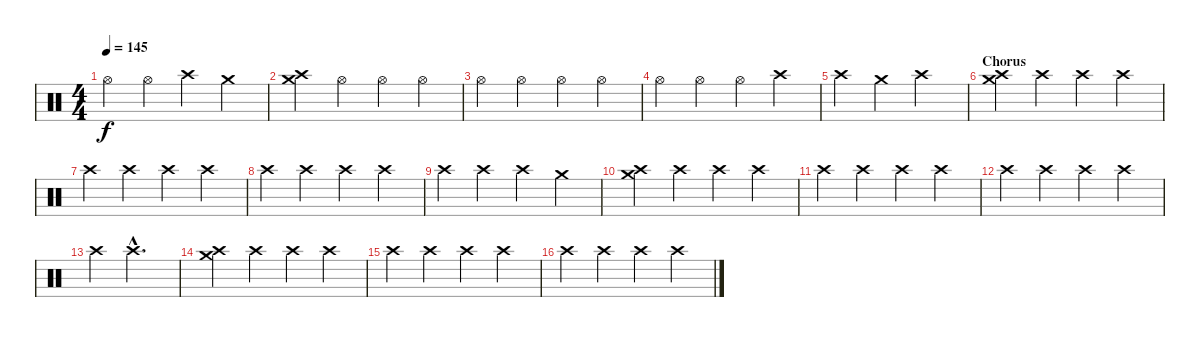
\track "" {instrument percussion}
\staff {score}
\articulation defaults
\ts (4 4)
\tempo 145
\clef neutral
\ks c "Hi-Hat (open)".4{dy f} "Hi-Hat (open)".4 "Crash high (hit)".4 "Crash medium (hit)".4
|
("Crash medium (hit)" "Crash high (hit)").4 "Hi-Hat (open)".4 "Hi-Hat (open)".4 "Hi-Hat (open)".4 |
"Hi-Hat (open)".4 "Hi-Hat (open)".4 "Hi-Hat (open)".4 "Hi-Hat (open)".4 |
"Hi-Hat (open)".4 "Hi-Hat (open)".4 "Hi-Hat (open)".4 "Crash high (hit)".4 |
"Crash high (hit)".4 "Crash medium (hit)".4 "Crash high (hit)".2 |
\section ("" "Chorus")
("Crash medium (hit)" "Crash high (hit)").4 "Crash high (hit)".4 "Crash high (hit)".4 "Crash high (hit)".4 |
"Crash high (hit)".4 "Crash high (hit)".4 "Crash high (hit)".4 "Crash high (hit)".4 |
"Crash high (hit)".4 "Crash high (hit)".4 "Crash high (hit)".4 "Crash high (hit)".4 |
"Crash high (hit)".4 "Crash high (hit)".4 "Crash high (hit)".4 "Crash medium (hit)".4 |
("Crash medium (hit)" "Crash high (hit)").4 "Crash high (hit)".4 "Crash high (hit)".4 "Crash high (hit)".4 |
"Crash high (hit)".4 "Crash high (hit)".4 "Crash high (hit)".4 "Crash high (hit)".4 |
"Crash high (hit)".4 "Crash high (hit)".4 "Crash high (hit)".4 "Crash high (hit)".4 |
"Crash high (hit)".4 "Crash high (hit)"{hac}.2{d} |
("Crash medium (hit)" "Crash high (hit)").4 "Crash high (hit)".4 "Crash high (hit)".4 "Crash high (hit)".4 |
"Crash high (hit)".4 "Crash high (hit)".4 "Crash high (hit)".4 "Crash high (hit)".4 |
"Crash high (hit)".4 "Crash high (hit)".4 "Crash high (hit)".4 "Crash high (hit)".4
